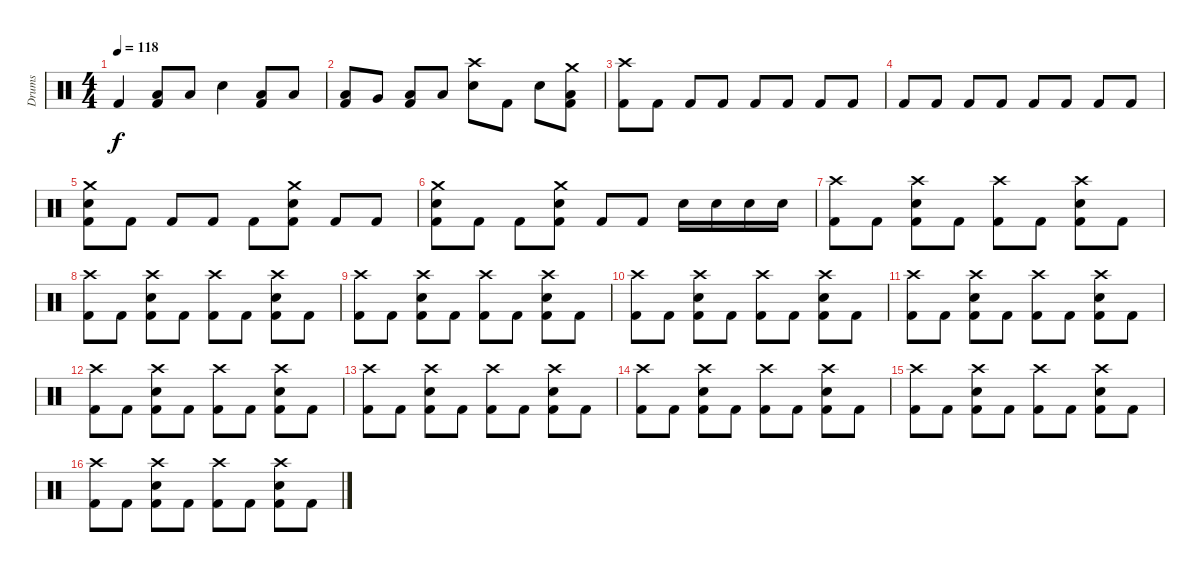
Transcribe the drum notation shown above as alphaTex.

\track ("Drums" "Drums") {instrument percussion}
\staff {score}
\articulation defaults
\ts (4 4)
\tempo 118
\clef neutral
\ks c "Kick (hit) 2".4{dy f}
("Kick (hit) 2" "Low Floor Tom (hit)").8 "Low Floor Tom (hit)".8 "Snare (hit) 2".4 ("Kick (hit) 2" "Low Floor Tom (hit)").8 "Low Floor Tom (hit)".8 |
("Kick (hit) 2" "Low Tom (hit)").8 "Very Low Tom (hit)".8 ("Kick (hit) 2" "Low Floor Tom (hit)").8 "Low Floor Tom (hit)".8 ("Snare (hit) 2" "Crash high (hit)").8 "Kick (hit) 2".8 "Snare (hit) 2".8 ("Kick (hit) 2" "Low Floor Tom (hit)" "Crash medium (hit)").8 |
("Kick (hit) 2" "Crash high (hit)").8 "Kick (hit) 2".8 "Kick (hit) 2".8 "Kick (hit) 2".8 "Kick (hit) 2".8 "Kick (hit) 2".8 "Kick (hit) 2".8 "Kick (hit) 2".8 |
"Kick (hit) 2".8 "Kick (hit) 2".8 "Kick (hit) 2".8 "Kick (hit) 2".8 "Kick (hit) 2".8 "Kick (hit) 2".8 "Kick (hit) 2".8 "Kick (hit) 2".8 |
("Kick (hit) 2" "Snare (hit) 2" "Crash medium (hit)").8 "Kick (hit) 2".8 "Kick (hit) 2".8 "Kick (hit) 2".8 "Kick (hit) 2".8 ("Kick (hit) 2" "Snare (hit) 2" "Crash medium (hit)").8 "Kick (hit) 2".8 "Kick (hit) 2".8 |
("Kick (hit) 2" "Snare (hit) 2" "Crash medium (hit)").8 "Kick (hit) 2".8 "Kick (hit) 2".8 ("Kick (hit) 2" "Snare (hit) 2" "Crash medium (hit)").8 "Kick (hit) 2".8 "Kick (hit) 2".8 "Snare (hit) 2".16 "Snare (hit) 2".16 "Snare (hit) 2".16 "Snare (hit) 2".16 |
("Kick (hit) 2" "Crash high (hit)").8 "Kick (hit) 2".8 ("Kick (hit) 2" "Snare (hit) 2" "Crash high (hit)").8 "Kick (hit) 2".8 ("Kick (hit) 2" "Crash high (hit)").8 "Kick (hit) 2".8 ("Kick (hit) 2" "Snare (hit) 2" "Crash high (hit)").8 "Kick (hit) 2".8 |
("Kick (hit) 2" "Crash high (hit)").8 "Kick (hit) 2".8 ("Kick (hit) 2" "Snare (hit) 2" "Crash high (hit)").8 "Kick (hit) 2".8 ("Kick (hit) 2" "Crash high (hit)").8 "Kick (hit) 2".8 ("Kick (hit) 2" "Snare (hit) 2" "Crash high (hit)").8 "Kick (hit) 2".8 |
("Kick (hit) 2" "Crash high (hit)").8 "Kick (hit) 2".8 ("Kick (hit) 2" "Snare (hit) 2" "Crash high (hit)").8 "Kick (hit) 2".8 ("Kick (hit) 2" "Crash high (hit)").8 "Kick (hit) 2".8 ("Kick (hit) 2" "Snare (hit) 2" "Crash high (hit)").8 "Kick (hit) 2".8 |
("Kick (hit) 2" "Crash high (hit)").8 "Kick (hit) 2".8 ("Kick (hit) 2" "Snare (hit) 2" "Crash high (hit)").8 "Kick (hit) 2".8 ("Kick (hit) 2" "Crash high (hit)").8 "Kick (hit) 2".8 ("Kick (hit) 2" "Snare (hit) 2" "Crash high (hit)").8 "Kick (hit) 2".8 |
("Kick (hit) 2" "Crash high (hit)").8 "Kick (hit) 2".8 ("Kick (hit) 2" "Snare (hit) 2" "Crash high (hit)").8 "Kick (hit) 2".8 ("Kick (hit) 2" "Crash high (hit)").8 "Kick (hit) 2".8 ("Kick (hit) 2" "Snare (hit) 2" "Crash high (hit)").8 "Kick (hit) 2".8 |
("Kick (hit) 2" "Crash high (hit)").8 "Kick (hit) 2".8 ("Kick (hit) 2" "Snare (hit) 2" "Crash high (hit)").8 "Kick (hit) 2".8 ("Kick (hit) 2" "Crash high (hit)").8 "Kick (hit) 2".8 ("Kick (hit) 2" "Snare (hit) 2" "Crash high (hit)").8 "Kick (hit) 2".8 |
("Kick (hit) 2" "Crash high (hit)").8 "Kick (hit) 2".8 ("Kick (hit) 2" "Snare (hit) 2" "Crash high (hit)").8 "Kick (hit) 2".8 ("Kick (hit) 2" "Crash high (hit)").8 "Kick (hit) 2".8 ("Kick (hit) 2" "Snare (hit) 2" "Crash high (hit)").8 "Kick (hit) 2".8 |
("Kick (hit) 2" "Crash high (hit)").8 "Kick (hit) 2".8 ("Kick (hit) 2" "Snare (hit) 2" "Crash high (hit)").8 "Kick (hit) 2".8 ("Kick (hit) 2" "Crash high (hit)").8 "Kick (hit) 2".8 ("Kick (hit) 2" "Snare (hit) 2" "Crash high (hit)").8 "Kick (hit) 2".8 |
("Kick (hit) 2" "Crash high (hit)").8 "Kick (hit) 2".8 ("Kick (hit) 2" "Snare (hit) 2" "Crash high (hit)").8 "Kick (hit) 2".8 ("Kick (hit) 2" "Crash high (hit)").8 "Kick (hit) 2".8 ("Kick (hit) 2" "Snare (hit) 2" "Crash high (hit)").8 "Kick (hit) 2".8 |
("Kick (hit) 2" "Crash high (hit)").8 "Kick (hit) 2".8 ("Kick (hit) 2" "Snare (hit) 2" "Crash high (hit)").8 "Kick (hit) 2".8 ("Kick (hit) 2" "Crash high (hit)").8 "Kick (hit) 2".8 ("Kick (hit) 2" "Snare (hit) 2" "Crash high (hit)").8 "Kick (hit) 2".8
